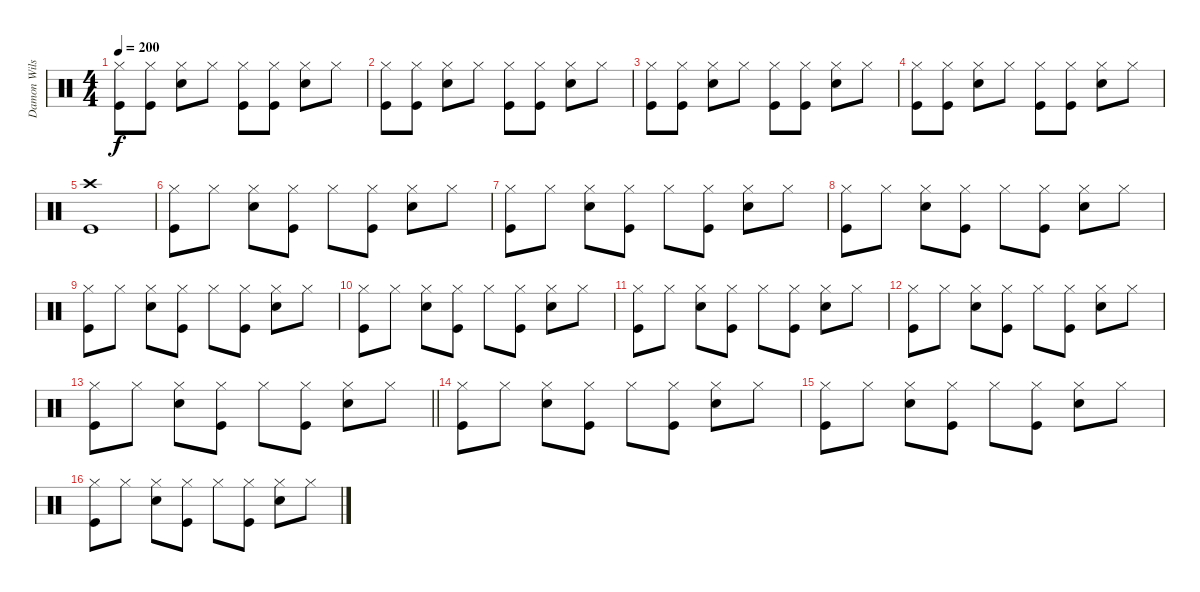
\track ("Damon Wilson" "Damon Wils") {instrument percussion}
\staff {score}
\articulation defaults
\ts (4 4)
\tempo 200
\clef neutral
\ks c
("Hi-Hat (closed)" "Kick (hit)").8{dy f} ("Hi-Hat (closed)" "Kick (hit)").8 ("Hi-Hat (closed)" "Snare (hit) 2").8 "Hi-Hat (closed)".8 ("Hi-Hat (closed)" "Kick (hit)").8 ("Hi-Hat (closed)" "Kick (hit)").8 ("Hi-Hat (closed)" "Snare (hit) 2").8 "Hi-Hat (closed)".8 |
("Hi-Hat (closed)" "Kick (hit)").8 ("Hi-Hat (closed)" "Kick (hit)").8 ("Hi-Hat (closed)" "Snare (hit) 2").8 "Hi-Hat (closed)".8 ("Hi-Hat (closed)" "Kick (hit)").8 ("Hi-Hat (closed)" "Kick (hit)").8 ("Hi-Hat (closed)" "Snare (hit) 2").8 "Hi-Hat (closed)".8 |
("Hi-Hat (closed)" "Kick (hit)").8 ("Hi-Hat (closed)" "Kick (hit)").8 ("Hi-Hat (closed)" "Snare (hit) 2").8 "Hi-Hat (closed)".8 ("Hi-Hat (closed)" "Kick (hit)").8 ("Hi-Hat (closed)" "Kick (hit)").8 ("Hi-Hat (closed)" "Snare (hit) 2").8 "Hi-Hat (closed)".8 |
("Hi-Hat (closed)" "Kick (hit)").8 ("Hi-Hat (closed)" "Kick (hit)").8 ("Hi-Hat (closed)" "Snare (hit) 2").8 "Hi-Hat (closed)".8 ("Hi-Hat (closed)" "Kick (hit)").8 ("Hi-Hat (closed)" "Kick (hit)").8 ("Hi-Hat (closed)" "Snare (hit) 2").8 "Hi-Hat (closed)".8 |
("Crash high (hit)" "Kick (hit)").1 |
("Hi-Hat (closed)" "Kick (hit)").8 "Hi-Hat (closed)".8 ("Hi-Hat (closed)" "Snare (hit) 2").8 ("Hi-Hat (closed)" "Kick (hit)").8 "Hi-Hat (closed)".8 ("Hi-Hat (closed)" "Kick (hit)").8 ("Hi-Hat (closed)" "Snare (hit) 2").8 "Hi-Hat (closed)".8 |
("Hi-Hat (closed)" "Kick (hit)").8 "Hi-Hat (closed)".8 ("Hi-Hat (closed)" "Snare (hit) 2").8 ("Hi-Hat (closed)" "Kick (hit)").8 "Hi-Hat (closed)".8 ("Hi-Hat (closed)" "Kick (hit)").8 ("Hi-Hat (closed)" "Snare (hit) 2").8 "Hi-Hat (closed)".8 |
("Hi-Hat (closed)" "Kick (hit)").8 "Hi-Hat (closed)".8 ("Hi-Hat (closed)" "Snare (hit) 2").8 ("Hi-Hat (closed)" "Kick (hit)").8 "Hi-Hat (closed)".8 ("Hi-Hat (closed)" "Kick (hit)").8 ("Hi-Hat (closed)" "Snare (hit) 2").8 "Hi-Hat (closed)".8 |
("Hi-Hat (closed)" "Kick (hit)").8 "Hi-Hat (closed)".8 ("Hi-Hat (closed)" "Snare (hit) 2").8 ("Hi-Hat (closed)" "Kick (hit)").8 "Hi-Hat (closed)".8 ("Hi-Hat (closed)" "Kick (hit)").8 ("Hi-Hat (closed)" "Snare (hit) 2").8 "Hi-Hat (closed)".8 |
("Hi-Hat (closed)" "Kick (hit)").8 "Hi-Hat (closed)".8 ("Hi-Hat (closed)" "Snare (hit) 2").8 ("Hi-Hat (closed)" "Kick (hit)").8 "Hi-Hat (closed)".8 ("Hi-Hat (closed)" "Kick (hit)").8 ("Hi-Hat (closed)" "Snare (hit) 2").8 "Hi-Hat (closed)".8 |
("Hi-Hat (closed)" "Kick (hit)").8 "Hi-Hat (closed)".8 ("Hi-Hat (closed)" "Snare (hit) 2").8 ("Hi-Hat (closed)" "Kick (hit)").8 "Hi-Hat (closed)".8 ("Hi-Hat (closed)" "Kick (hit)").8 ("Hi-Hat (closed)" "Snare (hit) 2").8 "Hi-Hat (closed)".8 |
("Hi-Hat (closed)" "Kick (hit)").8 "Hi-Hat (closed)".8 ("Hi-Hat (closed)" "Snare (hit) 2").8 ("Hi-Hat (closed)" "Kick (hit)").8 "Hi-Hat (closed)".8 ("Hi-Hat (closed)" "Kick (hit)").8 ("Hi-Hat (closed)" "Snare (hit) 2").8 "Hi-Hat (closed)".8 |
\barLineRight lightlight
("Hi-Hat (closed)" "Kick (hit)").8 "Hi-Hat (closed)".8 ("Hi-Hat (closed)" "Snare (hit) 2").8 ("Hi-Hat (closed)" "Kick (hit)").8 "Hi-Hat (closed)".8 ("Hi-Hat (closed)" "Kick (hit)").8 ("Hi-Hat (closed)" "Snare (hit) 2").8 "Hi-Hat (closed)".8 |
("Hi-Hat (closed)" "Kick (hit)").8 "Hi-Hat (closed)".8 ("Hi-Hat (closed)" "Snare (hit) 2").8 ("Hi-Hat (closed)" "Kick (hit)").8 "Hi-Hat (closed)".8 ("Hi-Hat (closed)" "Kick (hit)").8 ("Hi-Hat (closed)" "Snare (hit) 2").8 "Hi-Hat (closed)".8 |
("Hi-Hat (closed)" "Kick (hit)").8 "Hi-Hat (closed)".8 ("Hi-Hat (closed)" "Snare (hit) 2").8 ("Hi-Hat (closed)" "Kick (hit)").8 "Hi-Hat (closed)".8 ("Hi-Hat (closed)" "Kick (hit)").8 ("Hi-Hat (closed)" "Snare (hit) 2").8 "Hi-Hat (closed)".8 |
("Hi-Hat (closed)" "Kick (hit)").8 "Hi-Hat (closed)".8 ("Hi-Hat (closed)" "Snare (hit) 2").8 ("Hi-Hat (closed)" "Kick (hit)").8 "Hi-Hat (closed)".8 ("Hi-Hat (closed)" "Kick (hit)").8 ("Hi-Hat (closed)" "Snare (hit) 2").8 "Hi-Hat (closed)".8
